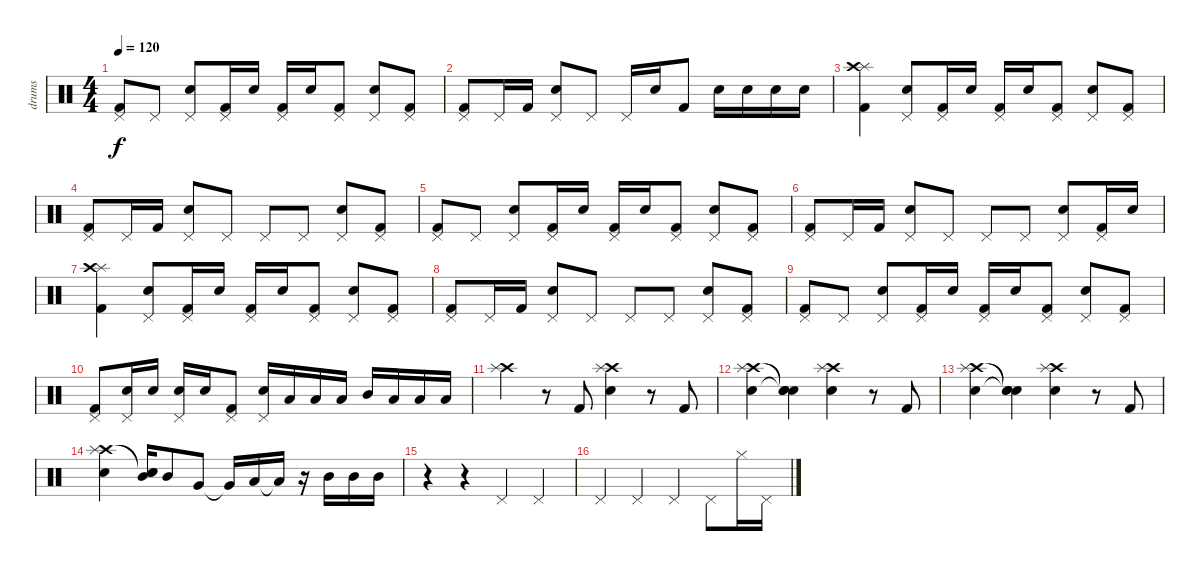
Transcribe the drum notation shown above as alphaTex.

\track ("drums" "drums") {instrument percussion}
\staff {score}
\articulation defaults
\ts (4 4)
\tempo 120
\clef neutral
\ks c
("Pedal Hi-Hat (hit)" "Kick (hit) 2").8{dy f} "Pedal Hi-Hat (hit)".8 ("Snare (hit) 2" "Pedal Hi-Hat (hit)").8 ("Kick (hit) 2" "Pedal Hi-Hat (hit)").16 "Snare (hit) 2".16 ("Kick (hit) 2" "Pedal Hi-Hat (hit)").16 "Snare (hit) 2".16{volume 16} ("Kick (hit) 2" "Pedal Hi-Hat (hit)").8 ("Snare (hit) 2" "Pedal Hi-Hat (hit)").8 ("Kick (hit) 2" "Pedal Hi-Hat (hit)").8 |
("Kick (hit) 2" "Pedal Hi-Hat (hit)").8 "Pedal Hi-Hat (hit)".16 "Kick (hit) 2".16 ("Snare (hit) 2" "Pedal Hi-Hat (hit)").8 "Pedal Hi-Hat (hit)".8 "Pedal Hi-Hat (hit)".16 "Snare (hit) 2".16 "Kick (hit) 2".8 "Snare (hit) 2".16 "Snare (hit) 2".16 "Snare (hit) 2".16 "Snare (hit) 2".16 |
("Splash (hit)" "Crash high (hit)" "Kick (hit) 2").4 ("Snare (hit) 2" "Pedal Hi-Hat (hit)").8 ("Kick (hit) 2" "Pedal Hi-Hat (hit)").16{volume 10} "Snare (hit) 2".16 ("Kick (hit) 2" "Pedal Hi-Hat (hit)").16 "Snare (hit) 2".16 ("Kick (hit) 2" "Pedal Hi-Hat (hit)").8 ("Snare (hit) 2" "Pedal Hi-Hat (hit)").8{volume 16} ("Kick (hit) 2" "Pedal Hi-Hat (hit)").8 |
("Kick (hit) 2" "Pedal Hi-Hat (hit)").8 "Pedal Hi-Hat (hit)".16 "Kick (hit) 2".16 ("Snare (hit) 2" "Pedal Hi-Hat (hit)").8 "Pedal Hi-Hat (hit)".8 "Pedal Hi-Hat (hit)".8 "Pedal Hi-Hat (hit)".8 ("Snare (hit) 2" "Pedal Hi-Hat (hit)").8 ("Pedal Hi-Hat (hit)" "Kick (hit) 2").8 |
("Pedal Hi-Hat (hit)" "Kick (hit) 2").8 "Pedal Hi-Hat (hit)".8 ("Snare (hit) 2" "Pedal Hi-Hat (hit)").8 ("Kick (hit) 2" "Pedal Hi-Hat (hit)").16 "Snare (hit) 2".16 ("Kick (hit) 2" "Pedal Hi-Hat (hit)").16 "Snare (hit) 2".16{volume 16} ("Kick (hit) 2" "Pedal Hi-Hat (hit)").8 ("Snare (hit) 2" "Pedal Hi-Hat (hit)").8 ("Kick (hit) 2" "Pedal Hi-Hat (hit)").8 |
("Kick (hit) 2" "Pedal Hi-Hat (hit)").8 "Pedal Hi-Hat (hit)".16 "Kick (hit) 2".16 ("Snare (hit) 2" "Pedal Hi-Hat (hit)").8 "Pedal Hi-Hat (hit)".8 "Pedal Hi-Hat (hit)".8 "Pedal Hi-Hat (hit)".8 ("Snare (hit) 2" "Pedal Hi-Hat (hit)").8 ("Pedal Hi-Hat (hit)" "Kick (hit) 2").16 "Snare (hit) 2".16 |
("Splash (hit)" "Crash high (hit)" "Kick (hit) 2").4 ("Snare (hit) 2" "Pedal Hi-Hat (hit)").8 ("Kick (hit) 2" "Pedal Hi-Hat (hit)").16{volume 10} "Snare (hit) 2".16 ("Kick (hit) 2" "Pedal Hi-Hat (hit)").16 "Snare (hit) 2".16 ("Kick (hit) 2" "Pedal Hi-Hat (hit)").8 ("Snare (hit) 2" "Pedal Hi-Hat (hit)").8{volume 16} ("Kick (hit) 2" "Pedal Hi-Hat (hit)").8 |
("Kick (hit) 2" "Pedal Hi-Hat (hit)").8 "Pedal Hi-Hat (hit)".16 "Kick (hit) 2".16 ("Snare (hit) 2" "Pedal Hi-Hat (hit)").8 "Pedal Hi-Hat (hit)".8 "Pedal Hi-Hat (hit)".8 "Pedal Hi-Hat (hit)".8 ("Snare (hit) 2" "Pedal Hi-Hat (hit)").8 ("Pedal Hi-Hat (hit)" "Kick (hit) 2").8 |
("Pedal Hi-Hat (hit)" "Kick (hit) 2").8 "Pedal Hi-Hat (hit)".8 ("Snare (hit) 2" "Pedal Hi-Hat (hit)").8 ("Kick (hit) 2" "Pedal Hi-Hat (hit)").16 "Snare (hit) 2".16 ("Kick (hit) 2" "Pedal Hi-Hat (hit)").16 "Snare (hit) 2".16{volume 16} ("Kick (hit) 2" "Pedal Hi-Hat (hit)").8 ("Snare (hit) 2" "Pedal Hi-Hat (hit)").8 ("Kick (hit) 2" "Pedal Hi-Hat (hit)").8 |
("Kick (hit) 2" "Pedal Hi-Hat (hit)").8 ("Snare (hit) 2" "Pedal Hi-Hat (hit)").16 "Snare (hit) 2".16 ("Snare (hit) 2" "Pedal Hi-Hat (hit)").16 "Snare (hit) 2".16 ("Kick (hit) 2" "Pedal Hi-Hat (hit)").8 ("Snare (hit) 2" "Pedal Hi-Hat (hit)").16 "Low Tom (hit)".16 "Low Tom (hit)".16 "Low Tom (hit)".16 "Mid Tom (hit)".16 "Low Tom (hit)".16 "Low Tom (hit)".16 "Low Tom (hit)".16 |
("Crash high (hit)" "Splash (hit)").4 r.8 "Kick (hit) 2".8 ("Crash high (hit)" "Snare (hit) 2" "Splash (hit)").4 r.8 "Kick (hit) 2".8 |
("Crash high (hit)" "Snare (hit) 2" "Splash (hit)").4 ("Snare (hit)"{t} "Snare (hit)"{t} "Snare (hit)"{t}).4 ("Crash high (hit)" "Snare (hit) 2" "Splash (hit)").4 r.8 "Kick (hit) 2".8 |
("Crash high (hit)" "Snare (hit) 2" "Splash (hit)").4 ("Snare (hit)"{t} "Snare (hit)"{t} "Snare (hit)"{t}).4 ("Crash high (hit)" "Snare (hit) 2" "Splash (hit)").4 r.8 "Kick (hit) 2".8 |
("Crash high (hit)" "Snare (hit) 2" "Splash (hit)").4 ("Snare (hit)"{t} "Mid Tom (hit)" "Snare (hit)"{t}).16 "Mid Tom (hit)".8 "Very Low Tom (hit)".8 "Very Low Tom (hit)"{t}.16 "Low Tom (hit)".16 "Low Tom (hit)"{t}.16 r.16 "Mid Tom (hit)".16 "Mid Tom (hit)".16 "Mid Tom (hit)".16 |
r.4 r.4 "Pedal Hi-Hat (hit)".4 "Pedal Hi-Hat (hit)".4 |
"Pedal Hi-Hat (hit)".4 "Pedal Hi-Hat (hit)".4 "Pedal Hi-Hat (hit)".4 "Pedal Hi-Hat (hit)".8 "Hi-Hat (closed)".16 "Pedal Hi-Hat (hit)".16
